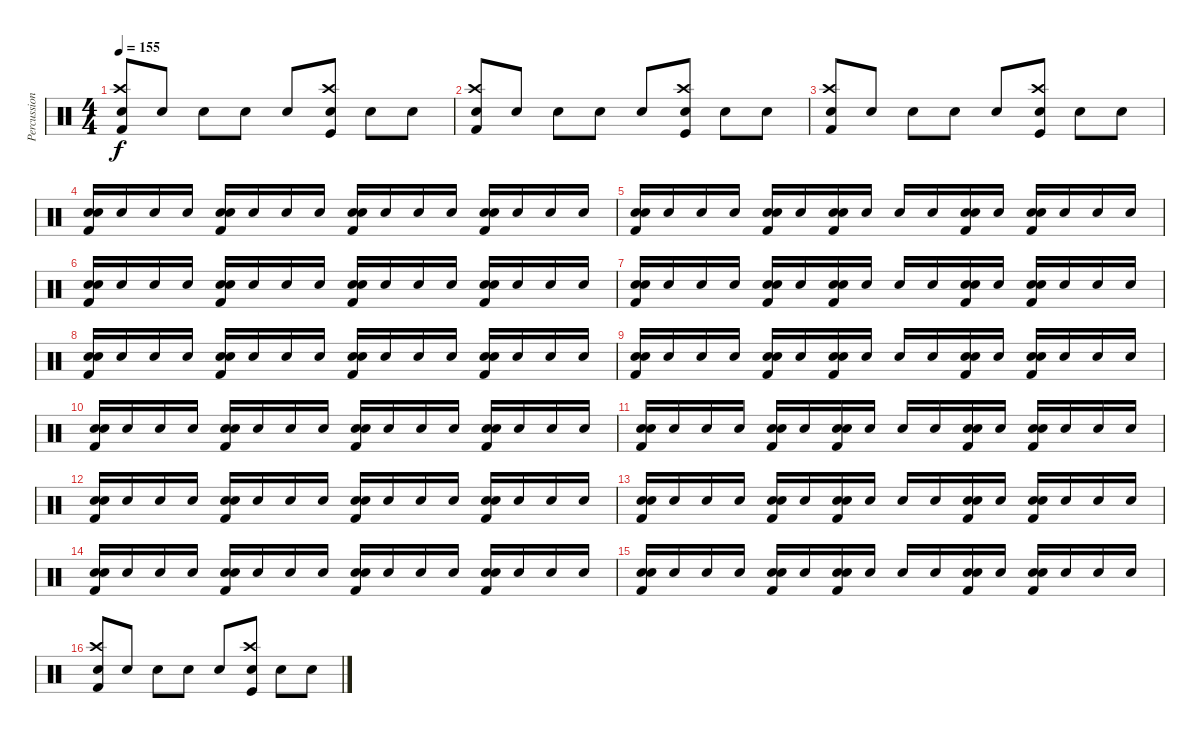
\track ("Percussion" "Percussion") {instrument percussion}
\staff {score}
\articulation defaults
\ts (4 4)
\tempo 155
\clef neutral
\ks c
("Snare (hit) 2" "Crash high (hit)" "Kick (hit) 2").8{dy f} "Snare (hit) 2".8 "Snare (hit) 2".8 "Snare (hit) 2".8 "Snare (hit) 2".8 ("Snare (hit) 2" "Crash high (hit)" "Kick (hit)").8 "Snare (hit) 2".8 "Snare (hit) 2".8 |
("Snare (hit) 2" "Crash high (hit)" "Kick (hit) 2").8 "Snare (hit) 2".8 "Snare (hit) 2".8 "Snare (hit) 2".8 "Snare (hit) 2".8 ("Snare (hit) 2" "Crash high (hit)" "Kick (hit)").8 "Snare (hit) 2".8 "Snare (hit) 2".8 |
("Snare (hit) 2" "Crash high (hit)" "Kick (hit) 2").8 "Snare (hit) 2".8 "Snare (hit) 2".8 "Snare (hit) 2".8 "Snare (hit) 2".8 ("Snare (hit) 2" "Crash high (hit)" "Kick (hit)").8 "Snare (hit) 2".8 "Snare (hit) 2".8 |
("Snare (hit) 2" "Snare (hit) 2" "Kick (hit) 2").16 "Snare (hit) 2".16 "Snare (hit) 2".16 "Snare (hit) 2".16 ("Snare (hit) 2" "Snare (hit) 2" "Kick (hit) 2").16 "Snare (hit) 2".16 "Snare (hit) 2".16 "Snare (hit) 2".16 ("Snare (hit) 2" "Snare (hit) 2" "Kick (hit) 2").16 "Snare (hit) 2".16 "Snare (hit) 2".16 "Snare (hit) 2".16 ("Snare (hit) 2" "Snare (hit) 2" "Kick (hit) 2").16 "Snare (hit) 2".16 "Snare (hit) 2".16 "Snare (hit) 2".16 |
("Snare (hit) 2" "Snare (hit) 2" "Kick (hit) 2").16 "Snare (hit) 2".16 "Snare (hit) 2".16 "Snare (hit) 2".16 ("Snare (hit) 2" "Snare (hit) 2" "Kick (hit) 2").16 "Snare (hit) 2".16 ("Snare (hit) 2" "Snare (hit) 2" "Kick (hit) 2").16 "Snare (hit) 2".16 "Snare (hit) 2".16 "Snare (hit) 2".16 ("Snare (hit) 2" "Snare (hit) 2" "Kick (hit) 2").16 "Snare (hit) 2".16 ("Snare (hit) 2" "Snare (hit) 2" "Kick (hit) 2").16 "Snare (hit) 2".16 "Snare (hit) 2".16 "Snare (hit) 2".16 |
("Snare (hit) 2" "Snare (hit) 2" "Kick (hit) 2").16 "Snare (hit) 2".16 "Snare (hit) 2".16 "Snare (hit) 2".16 ("Snare (hit) 2" "Snare (hit) 2" "Kick (hit) 2").16 "Snare (hit) 2".16 "Snare (hit) 2".16 "Snare (hit) 2".16 ("Snare (hit) 2" "Snare (hit) 2" "Kick (hit) 2").16 "Snare (hit) 2".16 "Snare (hit) 2".16 "Snare (hit) 2".16 ("Snare (hit) 2" "Snare (hit) 2" "Kick (hit) 2").16 "Snare (hit) 2".16 "Snare (hit) 2".16 "Snare (hit) 2".16 |
("Snare (hit) 2" "Snare (hit) 2" "Kick (hit) 2").16 "Snare (hit) 2".16 "Snare (hit) 2".16 "Snare (hit) 2".16 ("Snare (hit) 2" "Snare (hit) 2" "Kick (hit) 2").16 "Snare (hit) 2".16 ("Snare (hit) 2" "Snare (hit) 2" "Kick (hit) 2").16 "Snare (hit) 2".16 "Snare (hit) 2".16 "Snare (hit) 2".16 ("Snare (hit) 2" "Snare (hit) 2" "Kick (hit) 2").16 "Snare (hit) 2".16 ("Snare (hit) 2" "Snare (hit) 2" "Kick (hit) 2").16 "Snare (hit) 2".16 "Snare (hit) 2".16 "Snare (hit) 2".16 |
("Snare (hit) 2" "Snare (hit) 2" "Kick (hit) 2").16 "Snare (hit) 2".16 "Snare (hit) 2".16 "Snare (hit) 2".16 ("Snare (hit) 2" "Snare (hit) 2" "Kick (hit) 2").16 "Snare (hit) 2".16 "Snare (hit) 2".16 "Snare (hit) 2".16 ("Snare (hit) 2" "Snare (hit) 2" "Kick (hit) 2").16 "Snare (hit) 2".16 "Snare (hit) 2".16 "Snare (hit) 2".16 ("Snare (hit) 2" "Snare (hit) 2" "Kick (hit) 2").16 "Snare (hit) 2".16 "Snare (hit) 2".16 "Snare (hit) 2".16 |
("Snare (hit) 2" "Snare (hit) 2" "Kick (hit) 2").16 "Snare (hit) 2".16 "Snare (hit) 2".16 "Snare (hit) 2".16 ("Snare (hit) 2" "Snare (hit) 2" "Kick (hit) 2").16 "Snare (hit) 2".16 ("Snare (hit) 2" "Snare (hit) 2" "Kick (hit) 2").16 "Snare (hit) 2".16 "Snare (hit) 2".16 "Snare (hit) 2".16 ("Snare (hit) 2" "Snare (hit) 2" "Kick (hit) 2").16 "Snare (hit) 2".16 ("Snare (hit) 2" "Snare (hit) 2" "Kick (hit) 2").16 "Snare (hit) 2".16 "Snare (hit) 2".16 "Snare (hit) 2".16 |
("Snare (hit) 2" "Snare (hit) 2" "Kick (hit) 2").16 "Snare (hit) 2".16 "Snare (hit) 2".16 "Snare (hit) 2".16 ("Snare (hit) 2" "Snare (hit) 2" "Kick (hit) 2").16 "Snare (hit) 2".16 "Snare (hit) 2".16 "Snare (hit) 2".16 ("Snare (hit) 2" "Snare (hit) 2" "Kick (hit) 2").16 "Snare (hit) 2".16 "Snare (hit) 2".16 "Snare (hit) 2".16 ("Snare (hit) 2" "Snare (hit) 2" "Kick (hit) 2").16 "Snare (hit) 2".16 "Snare (hit) 2".16 "Snare (hit) 2".16 |
("Snare (hit) 2" "Snare (hit) 2" "Kick (hit) 2").16 "Snare (hit) 2".16 "Snare (hit) 2".16 "Snare (hit) 2".16 ("Snare (hit) 2" "Snare (hit) 2" "Kick (hit) 2").16 "Snare (hit) 2".16 ("Snare (hit) 2" "Snare (hit) 2" "Kick (hit) 2").16 "Snare (hit) 2".16 "Snare (hit) 2".16 "Snare (hit) 2".16 ("Snare (hit) 2" "Snare (hit) 2" "Kick (hit) 2").16 "Snare (hit) 2".16 ("Snare (hit) 2" "Snare (hit) 2" "Kick (hit) 2").16 "Snare (hit) 2".16 "Snare (hit) 2".16 "Snare (hit) 2".16 |
("Snare (hit) 2" "Snare (hit) 2" "Kick (hit) 2").16 "Snare (hit) 2".16 "Snare (hit) 2".16 "Snare (hit) 2".16 ("Snare (hit) 2" "Snare (hit) 2" "Kick (hit) 2").16 "Snare (hit) 2".16 "Snare (hit) 2".16 "Snare (hit) 2".16 ("Snare (hit) 2" "Snare (hit) 2" "Kick (hit) 2").16 "Snare (hit) 2".16 "Snare (hit) 2".16 "Snare (hit) 2".16 ("Snare (hit) 2" "Snare (hit) 2" "Kick (hit) 2").16 "Snare (hit) 2".16 "Snare (hit) 2".16 "Snare (hit) 2".16 |
("Snare (hit) 2" "Snare (hit) 2" "Kick (hit) 2").16 "Snare (hit) 2".16 "Snare (hit) 2".16 "Snare (hit) 2".16 ("Snare (hit) 2" "Snare (hit) 2" "Kick (hit) 2").16 "Snare (hit) 2".16 ("Snare (hit) 2" "Snare (hit) 2" "Kick (hit) 2").16 "Snare (hit) 2".16 "Snare (hit) 2".16 "Snare (hit) 2".16 ("Snare (hit) 2" "Snare (hit) 2" "Kick (hit) 2").16 "Snare (hit) 2".16 ("Snare (hit) 2" "Snare (hit) 2" "Kick (hit) 2").16 "Snare (hit) 2".16 "Snare (hit) 2".16 "Snare (hit) 2".16 |
("Snare (hit) 2" "Snare (hit) 2" "Kick (hit) 2").16 "Snare (hit) 2".16 "Snare (hit) 2".16 "Snare (hit) 2".16 ("Snare (hit) 2" "Snare (hit) 2" "Kick (hit) 2").16 "Snare (hit) 2".16 "Snare (hit) 2".16 "Snare (hit) 2".16 ("Snare (hit) 2" "Snare (hit) 2" "Kick (hit) 2").16 "Snare (hit) 2".16 "Snare (hit) 2".16 "Snare (hit) 2".16 ("Snare (hit) 2" "Snare (hit) 2" "Kick (hit) 2").16 "Snare (hit) 2".16 "Snare (hit) 2".16 "Snare (hit) 2".16 |
("Snare (hit) 2" "Snare (hit) 2" "Kick (hit) 2").16 "Snare (hit) 2".16 "Snare (hit) 2".16 "Snare (hit) 2".16 ("Snare (hit) 2" "Snare (hit) 2" "Kick (hit) 2").16 "Snare (hit) 2".16 ("Snare (hit) 2" "Snare (hit) 2" "Kick (hit) 2").16 "Snare (hit) 2".16 "Snare (hit) 2".16 "Snare (hit) 2".16 ("Snare (hit) 2" "Snare (hit) 2" "Kick (hit) 2").16 "Snare (hit) 2".16 ("Snare (hit) 2" "Snare (hit) 2" "Kick (hit) 2").16 "Snare (hit) 2".16 "Snare (hit) 2".16 "Snare (hit) 2".16 |
("Snare (hit) 2" "Crash high (hit)" "Kick (hit) 2").8 "Snare (hit) 2".8 "Snare (hit) 2".8 "Snare (hit) 2".8 "Snare (hit) 2".8 ("Snare (hit) 2" "Crash high (hit)" "Kick (hit)").8 "Snare (hit) 2".8 "Snare (hit) 2".8
